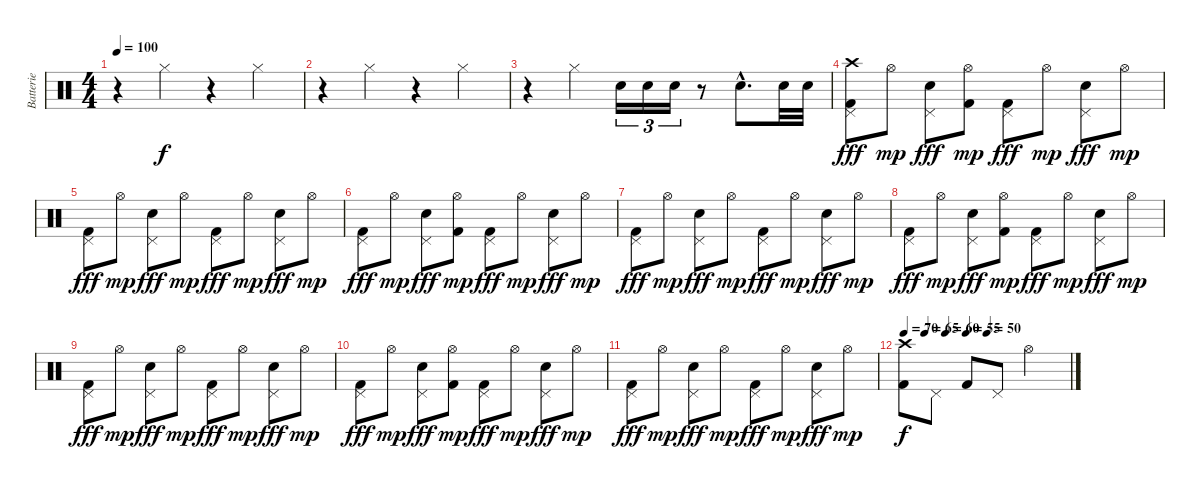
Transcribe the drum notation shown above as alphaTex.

\track ("Batterie" "Batterie") {instrument percussion}
\staff {score}
\articulation defaults
\ts (4 4)
\tempo 100
\clef neutral
\ks c
r.4{dy f} "Hi-Hat (closed)".4 r.4 "Hi-Hat (closed)".4 |
r.4 "Hi-Hat (closed)".4 r.4 "Hi-Hat (closed)".4 |
r.4 "Hi-Hat (closed)".4 "Electric Snare (hit)".16{tu (3 2)} "Electric Snare (hit)".16{tu (3 2)} "Electric Snare (hit)".16{tu (3 2)} r.8 "Electric Snare (hit)"{hac}.8{d} "Electric Snare (hit)".32 "Electric Snare (hit)".32 |
("Pedal Hi-Hat (hit)" "Kick (hit) 2" "Crash high (hit)").8{dy fff} "Hi-Hat (open)".8{dy mp} ("Pedal Hi-Hat (hit)" "Electric Snare (hit)").8{dy fff} ("Hi-Hat (open)" "Kick (hit) 2").8{dy mp} ("Pedal Hi-Hat (hit)" "Kick (hit) 2").8{dy fff} "Hi-Hat (open)".8{dy mp} ("Pedal Hi-Hat (hit)" "Electric Snare (hit)").8{dy fff} "Hi-Hat (open)".8{dy mp} |
("Pedal Hi-Hat (hit)" "Kick (hit) 2").8{dy fff} "Hi-Hat (open)".8{dy mp} ("Pedal Hi-Hat (hit)" "Electric Snare (hit)").8{dy fff} "Hi-Hat (open)".8{dy mp} ("Pedal Hi-Hat (hit)" "Kick (hit) 2").8{dy fff} "Hi-Hat (open)".8{dy mp} ("Pedal Hi-Hat (hit)" "Electric Snare (hit)").8{dy fff} "Hi-Hat (open)".8{dy mp} |
("Pedal Hi-Hat (hit)" "Kick (hit) 2").8{dy fff} "Hi-Hat (open)".8{dy mp} ("Pedal Hi-Hat (hit)" "Electric Snare (hit)").8{dy fff} ("Hi-Hat (open)" "Kick (hit) 2").8{dy mp} ("Pedal Hi-Hat (hit)" "Kick (hit) 2").8{dy fff} "Hi-Hat (open)".8{dy mp} ("Pedal Hi-Hat (hit)" "Electric Snare (hit)").8{dy fff} "Hi-Hat (open)".8{dy mp} |
("Pedal Hi-Hat (hit)" "Kick (hit) 2").8{dy fff} "Hi-Hat (open)".8{dy mp} ("Pedal Hi-Hat (hit)" "Electric Snare (hit)").8{dy fff} "Hi-Hat (open)".8{dy mp} ("Pedal Hi-Hat (hit)" "Kick (hit) 2").8{dy fff} "Hi-Hat (open)".8{dy mp} ("Pedal Hi-Hat (hit)" "Electric Snare (hit)").8{dy fff} "Hi-Hat (open)".8{dy mp} |
("Pedal Hi-Hat (hit)" "Kick (hit) 2").8{dy fff} "Hi-Hat (open)".8{dy mp} ("Pedal Hi-Hat (hit)" "Electric Snare (hit)").8{dy fff} ("Hi-Hat (open)" "Kick (hit) 2").8{dy mp} ("Pedal Hi-Hat (hit)" "Kick (hit) 2").8{dy fff} "Hi-Hat (open)".8{dy mp} ("Pedal Hi-Hat (hit)" "Electric Snare (hit)").8{dy fff} "Hi-Hat (open)".8{dy mp} |
("Pedal Hi-Hat (hit)" "Kick (hit) 2").8{dy fff} "Hi-Hat (open)".8{dy mp} ("Pedal Hi-Hat (hit)" "Electric Snare (hit)").8{dy fff} "Hi-Hat (open)".8{dy mp} ("Pedal Hi-Hat (hit)" "Kick (hit) 2").8{dy fff} "Hi-Hat (open)".8{dy mp} ("Pedal Hi-Hat (hit)" "Electric Snare (hit)").8{dy fff} "Hi-Hat (open)".8{dy mp} |
("Pedal Hi-Hat (hit)" "Kick (hit) 2").8{dy fff} "Hi-Hat (open)".8{dy mp} ("Pedal Hi-Hat (hit)" "Electric Snare (hit)").8{dy fff} ("Hi-Hat (open)" "Kick (hit) 2").8{dy mp} ("Pedal Hi-Hat (hit)" "Kick (hit) 2").8{dy fff} "Hi-Hat (open)".8{dy mp} ("Pedal Hi-Hat (hit)" "Electric Snare (hit)").8{dy fff} "Hi-Hat (open)".8{dy mp} |
("Pedal Hi-Hat (hit)" "Kick (hit) 2").8{dy fff} "Hi-Hat (open)".8{dy mp} ("Pedal Hi-Hat (hit)" "Electric Snare (hit)").8{dy fff} "Hi-Hat (open)".8{dy mp} ("Pedal Hi-Hat (hit)" "Kick (hit) 2").8{dy fff} "Hi-Hat (open)".8{dy mp} ("Pedal Hi-Hat (hit)" "Electric Snare (hit)").8{dy fff} "Hi-Hat (open)".8{dy mp} |
\tempo 70
\tempo (65 0.125)
\tempo (60 0.25)
\tempo (55 0.375)
\tempo (50 0.5)
("Kick (hit) 2" "Crash high (hit)").8{dy f} "Pedal Hi-Hat (hit)".8 "Kick (hit) 2".8 "Pedal Hi-Hat (hit)".8 "Hi-Hat (open)".2
